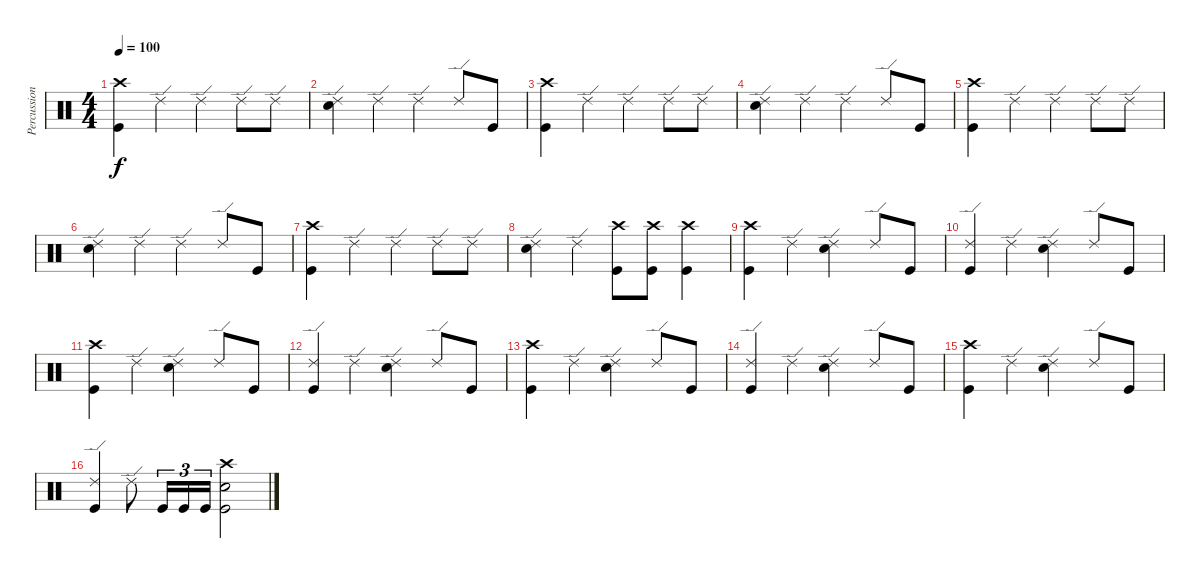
\track ("Percussions" "Percussion") {instrument percussion}
\staff {score}
\articulation defaults
\ts (4 4)
\tempo 100
\clef neutral
\ks c
("Crash high (hit)" "Kick (hit)").4{dy f} "Ride (edge) 2".4 "Ride (edge) 2".4 "Ride (edge) 2".8 "Ride (edge) 2".8 |
("Ride (edge) 2" "Snare (hit) 2").4 "Ride (edge) 2".4 "Ride (edge) 2".4 "Ride (edge) 2".8 "Kick (hit)".8 |
("Crash high (hit)" "Kick (hit)").4 "Ride (edge) 2".4 "Ride (edge) 2".4 "Ride (edge) 2".8 "Ride (edge) 2".8 |
("Ride (edge) 2" "Snare (hit) 2").4 "Ride (edge) 2".4 "Ride (edge) 2".4 "Ride (edge) 2".8 "Kick (hit)".8 |
("Crash high (hit)" "Kick (hit)").4 "Ride (edge) 2".4 "Ride (edge) 2".4 "Ride (edge) 2".8 "Ride (edge) 2".8 |
("Ride (edge) 2" "Snare (hit) 2").4 "Ride (edge) 2".4 "Ride (edge) 2".4 "Ride (edge) 2".8 "Kick (hit)".8 |
("Crash high (hit)" "Kick (hit)").4 "Ride (edge) 2".4 "Ride (edge) 2".4 "Ride (edge) 2".8 "Ride (edge) 2".8 |
("Ride (edge) 2" "Snare (hit) 2").4 "Ride (edge) 2".4 ("Crash high (hit)" "Kick (hit)").8 ("Crash high (hit)" "Kick (hit)").8 ("Crash high (hit)" "Kick (hit)").4 |
("Crash high (hit)" "Kick (hit)").4 "Ride (edge) 2".4 ("Ride (edge) 2" "Snare (hit) 2").4 "Ride (edge) 2".8 "Kick (hit)".8 |
("Ride (edge) 2" "Kick (hit)").4 "Ride (edge) 2".4 ("Ride (edge) 2" "Snare (hit) 2").4 "Ride (edge) 2".8 "Kick (hit)".8 |
("Crash high (hit)" "Kick (hit)").4 "Ride (edge) 2".4 ("Ride (edge) 2" "Snare (hit) 2").4 "Ride (edge) 2".8 "Kick (hit)".8 |
("Ride (edge) 2" "Kick (hit)").4 "Ride (edge) 2".4 ("Ride (edge) 2" "Snare (hit) 2").4 "Ride (edge) 2".8 "Kick (hit)".8 |
("Crash high (hit)" "Kick (hit)").4 "Ride (edge) 2".4 ("Ride (edge) 2" "Snare (hit) 2").4 "Ride (edge) 2".8 "Kick (hit)".8 |
("Ride (edge) 2" "Kick (hit)").4 "Ride (edge) 2".4 ("Ride (edge) 2" "Snare (hit) 2").4 "Ride (edge) 2".8 "Kick (hit)".8 |
("Crash high (hit)" "Kick (hit)").4 "Ride (edge) 2".4 ("Ride (edge) 2" "Snare (hit) 2").4 "Ride (edge) 2".8 "Kick (hit)".8 |
("Ride (edge) 2" "Kick (hit)").4 "Ride (edge) 2".8 "Kick (hit)".16{tu (3 2)} "Kick (hit)".16{tu (3 2)} "Kick (hit)".16{tu (3 2)} ("Crash high (hit)" "Snare (hit) 2" "Kick (hit)").2
